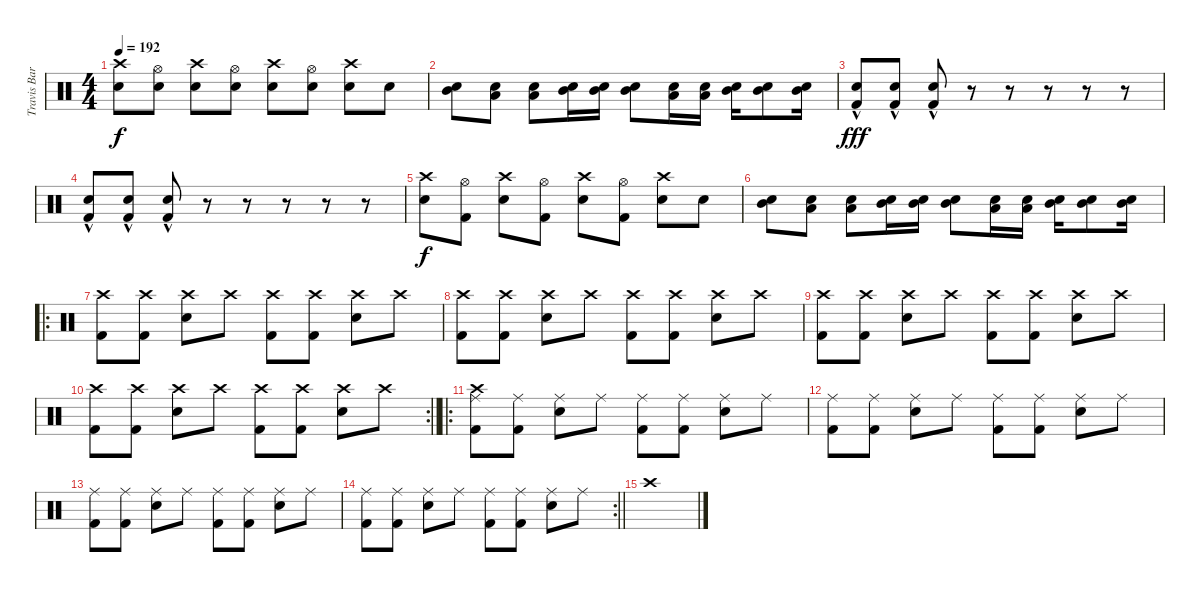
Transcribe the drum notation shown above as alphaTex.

\track ("Travis Barker" "Travis Bar") {instrument percussion}
\staff {score}
\articulation defaults
\ts (4 4)
\tempo 192
\clef neutral
\ks c
("Crash high (hit)" "Electric Snare (hit)").8{dy f} ("Hi-Hat (open)" "Snare (hit) 2").8 ("Crash high (hit)" "Electric Snare (hit)").8 ("Hi-Hat (open)" "Snare (hit) 2").8 ("Crash high (hit)" "Electric Snare (hit)").8 ("Hi-Hat (open)" "Snare (hit) 2").8 ("Crash high (hit)" "Electric Snare (hit)").8 "Electric Snare (hit)".8 |
("Mid Tom (hit)" "Snare (hit) 2").8 ("Low Floor Tom (hit)" "Snare (hit) 2").8 ("Low Floor Tom (hit)" "Snare (hit) 2").8 ("Mid Tom (hit)" "Snare (hit) 2").16 ("Mid Tom (hit)" "Snare (hit) 2").16 ("Mid Tom (hit)" "Snare (hit) 2").8 ("Low Floor Tom (hit)" "Snare (hit) 2").16 ("Low Floor Tom (hit)" "Snare (hit) 2").16 ("Mid Tom (hit)" "Snare (hit) 2").16 ("Mid Tom (hit)" "Snare (hit) 2").8 ("Mid Tom (hit)" "Snare (hit) 2").16 |
("Kick (hit) 2"{hac} "Snare (hit) 2"{hac}).8{dy fff} ("Kick (hit) 2"{hac} "Snare (hit) 2"{hac}).8 ("Kick (hit) 2"{hac} "Snare (hit) 2"{hac}).8 r.8 r.8 r.8 r.8 r.8 |
("Kick (hit) 2"{hac} "Snare (hit) 2"{hac}).8 ("Kick (hit) 2"{hac} "Snare (hit) 2"{hac}).8 ("Kick (hit) 2"{hac} "Snare (hit) 2"{hac}).8 r.8 r.8 r.8 r.8 r.8 |
("Crash high (hit)" "Electric Snare (hit)").8{dy f} ("Hi-Hat (open)" "Kick (hit) 2").8 ("Crash high (hit)" "Electric Snare (hit)").8 ("Hi-Hat (open)" "Kick (hit) 2").8 ("Crash high (hit)" "Electric Snare (hit)").8 ("Hi-Hat (open)" "Kick (hit) 2").8 ("Crash high (hit)" "Electric Snare (hit)").8 "Electric Snare (hit)".8 |
("Mid Tom (hit)" "Snare (hit) 2").8 ("Low Floor Tom (hit)" "Snare (hit) 2").8 ("Low Floor Tom (hit)" "Snare (hit) 2").8 ("Mid Tom (hit)" "Snare (hit) 2").16 ("Mid Tom (hit)" "Snare (hit) 2").16 ("Mid Tom (hit)" "Snare (hit) 2").8 ("Low Floor Tom (hit)" "Snare (hit) 2").16 ("Low Floor Tom (hit)" "Snare (hit) 2").16 ("Mid Tom (hit)" "Snare (hit) 2").16 ("Mid Tom (hit)" "Snare (hit) 2").8 ("Mid Tom (hit)" "Snare (hit) 2").16 |
\ro
("Kick (hit) 2" "Crash high (hit)").8 ("Kick (hit) 2" "Crash high (hit)").8 ("Electric Snare (hit)" "Crash high (hit)").8 "Crash high (hit)".8 ("Kick (hit) 2" "Crash high (hit)").8 ("Kick (hit) 2" "Crash high (hit)").8 ("Electric Snare (hit)" "Crash high (hit)").8 "Crash high (hit)".8 |
("Kick (hit) 2" "Crash high (hit)").8 ("Kick (hit) 2" "Crash high (hit)").8 ("Electric Snare (hit)" "Crash high (hit)").8 "Crash high (hit)".8 ("Kick (hit) 2" "Crash high (hit)").8 ("Kick (hit) 2" "Crash high (hit)").8 ("Electric Snare (hit)" "Crash high (hit)").8 "Crash high (hit)".8 |
("Kick (hit) 2" "Crash high (hit)").8 ("Kick (hit) 2" "Crash high (hit)").8 ("Electric Snare (hit)" "Crash high (hit)").8 "Crash high (hit)".8 ("Kick (hit) 2" "Crash high (hit)").8 ("Kick (hit) 2" "Crash high (hit)").8 ("Electric Snare (hit)" "Crash high (hit)").8 "Crash high (hit)".8 |
\rc 2
\barLineRight lightlight
("Kick (hit) 2" "Crash high (hit)").8 ("Kick (hit) 2" "Crash high (hit)").8 ("Electric Snare (hit)" "Crash high (hit)").8 "Crash high (hit)".8 ("Kick (hit) 2" "Crash high (hit)").8 ("Kick (hit) 2" "Crash high (hit)").8 ("Electric Snare (hit)" "Crash high (hit)").8 "Crash high (hit)".8 |
\ro
("Kick (hit) 2" "Ride (middle)" "Crash high (hit)").8 ("Kick (hit) 2" "Ride (middle)").8 ("Electric Snare (hit)" "Ride (middle)").8 "Ride (middle)".8 ("Kick (hit) 2" "Ride (middle)").8 ("Kick (hit) 2" "Ride (middle)").8 ("Electric Snare (hit)" "Ride (middle)").8 "Ride (middle)".8 |
("Kick (hit) 2" "Ride (middle)").8 ("Kick (hit) 2" "Ride (middle)").8 ("Electric Snare (hit)" "Ride (middle)").8 "Ride (middle)".8 ("Kick (hit) 2" "Ride (middle)").8 ("Kick (hit) 2" "Ride (middle)").8 ("Electric Snare (hit)" "Ride (middle)").8 "Ride (middle)".8 |
("Kick (hit) 2" "Ride (middle)").8 ("Kick (hit) 2" "Ride (middle)").8 ("Electric Snare (hit)" "Ride (middle)").8 "Ride (middle)".8 ("Kick (hit) 2" "Ride (middle)").8 ("Kick (hit) 2" "Ride (middle)").8 ("Electric Snare (hit)" "Ride (middle)").8 "Ride (middle)".8 |
\rc 2
\barLineRight lightlight
("Kick (hit) 2" "Ride (middle)").8 ("Kick (hit) 2" "Ride (middle)").8 ("Electric Snare (hit)" "Ride (middle)").8 "Ride (middle)".8 ("Kick (hit) 2" "Ride (middle)").8 ("Kick (hit) 2" "Ride (middle)").8 ("Electric Snare (hit)" "Ride (middle)").8 "Ride (middle)".8 |
"Crash high (hit)".1
